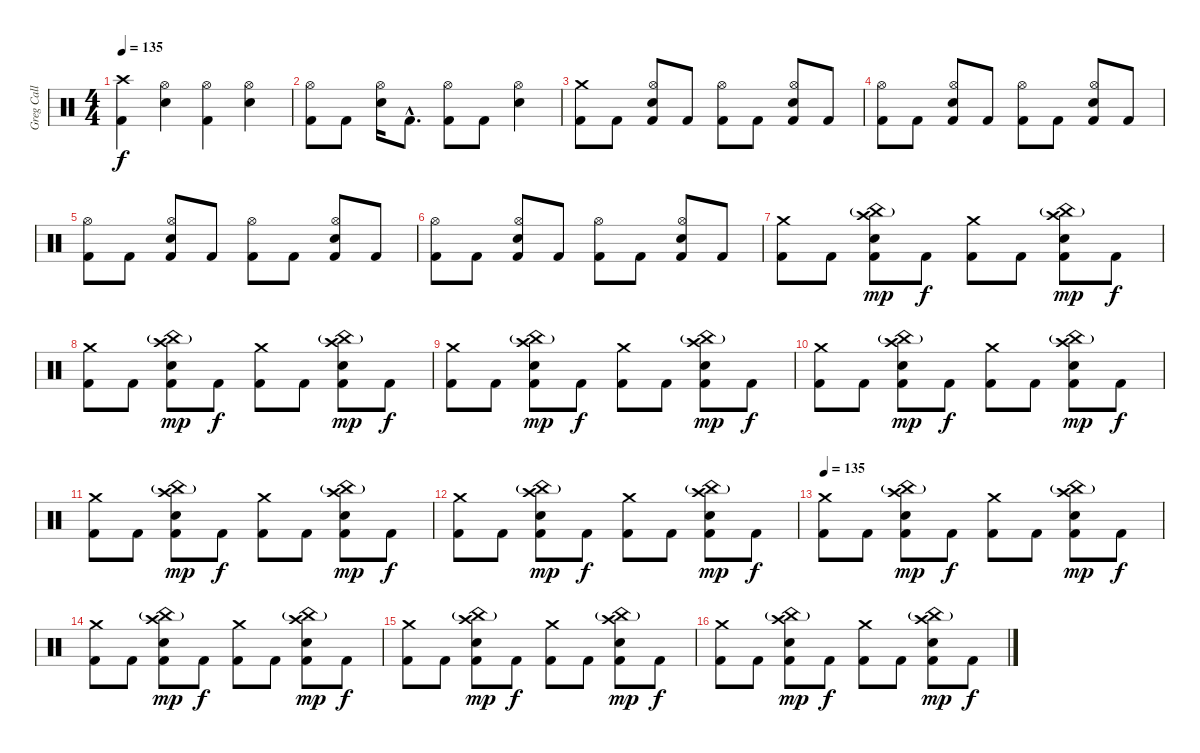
\track ("Greg Call (Drums)" "Greg Call ") {instrument percussion}
\staff {score}
\articulation defaults
\ts (4 4)
\tempo 135
\clef neutral
\ks c
("Crash high (hit)" "Kick (hit) 2").4{dy f} ("Hi-Hat (open)" "Snare (hit) 2").4 ("Hi-Hat (open)" "Kick (hit) 2").4 ("Hi-Hat (open)" "Snare (hit) 2").4 |
("Hi-Hat (open)" "Kick (hit) 2").8 "Kick (hit) 2".8 ("Hi-Hat (open)" "Snare (hit) 2").16 "Kick (hit) 2"{hac}.8{d} ("Hi-Hat (open)" "Kick (hit) 2").8 "Kick (hit) 2".8 ("Hi-Hat (open)" "Snare (hit) 2").4 |
("Crash medium (hit)" "Kick (hit) 2").8 "Kick (hit) 2".8 ("Hi-Hat (open)" "Snare (hit) 2" "Kick (hit) 2").8 "Kick (hit) 2".8 ("Hi-Hat (open)" "Kick (hit) 2").8 "Kick (hit) 2".8 ("Hi-Hat (open)" "Snare (hit) 2" "Kick (hit) 2").8 "Kick (hit) 2".8 |
("Hi-Hat (open)" "Kick (hit) 2").8 "Kick (hit) 2".8 ("Hi-Hat (open)" "Snare (hit) 2" "Kick (hit) 2").8 "Kick (hit) 2".8 ("Hi-Hat (open)" "Kick (hit) 2").8 "Kick (hit) 2".8 ("Hi-Hat (open)" "Snare (hit) 2" "Kick (hit) 2").8 "Kick (hit) 2".8 |
("Hi-Hat (open)" "Kick (hit) 2").8 "Kick (hit) 2".8 ("Hi-Hat (open)" "Snare (hit) 2" "Kick (hit) 2").8 "Kick (hit) 2".8 ("Hi-Hat (open)" "Kick (hit) 2").8 "Kick (hit) 2".8 ("Hi-Hat (open)" "Snare (hit) 2" "Kick (hit) 2").8 "Kick (hit) 2".8 |
("Hi-Hat (open)" "Kick (hit) 2").8 "Kick (hit) 2".8 ("Hi-Hat (open)" "Snare (hit) 2" "Kick (hit) 2").8 "Kick (hit) 2".8 ("Hi-Hat (open)" "Kick (hit) 2").8 "Kick (hit) 2".8 ("Hi-Hat (open)" "Snare (hit) 2" "Kick (hit) 2").8 "Kick (hit) 2".8 |
("Crash medium (hit)" "Kick (hit) 2").8 "Kick (hit) 2".8 ("China (hit)"{g} "Crash high (hit)" "Snare (hit) 2" "Kick (hit) 2").8{dy mp} "Kick (hit) 2".8{dy f} ("Crash medium (hit)" "Kick (hit) 2").8 "Kick (hit) 2".8 ("China (hit)"{g} "Crash high (hit)" "Snare (hit) 2" "Kick (hit) 2").8{dy mp} "Kick (hit) 2".8{dy f} |
("Crash medium (hit)" "Kick (hit) 2").8 "Kick (hit) 2".8 ("China (hit)"{g} "Crash high (hit)" "Snare (hit) 2" "Kick (hit) 2").8{dy mp} "Kick (hit) 2".8{dy f} ("Crash medium (hit)" "Kick (hit) 2").8 "Kick (hit) 2".8 ("China (hit)"{g} "Crash high (hit)" "Snare (hit) 2" "Kick (hit) 2").8{dy mp} "Kick (hit) 2".8{dy f} |
("Crash medium (hit)" "Kick (hit) 2").8 "Kick (hit) 2".8 ("China (hit)"{g} "Crash high (hit)" "Snare (hit) 2" "Kick (hit) 2").8{dy mp} "Kick (hit) 2".8{dy f} ("Crash medium (hit)" "Kick (hit) 2").8 "Kick (hit) 2".8 ("China (hit)"{g} "Crash high (hit)" "Snare (hit) 2" "Kick (hit) 2").8{dy mp} "Kick (hit) 2".8{dy f} |
("Crash medium (hit)" "Kick (hit) 2").8 "Kick (hit) 2".8 ("China (hit)"{g} "Crash high (hit)" "Snare (hit) 2" "Kick (hit) 2").8{dy mp} "Kick (hit) 2".8{dy f} ("Crash medium (hit)" "Kick (hit) 2").8 "Kick (hit) 2".8 ("China (hit)"{g} "Crash high (hit)" "Snare (hit) 2" "Kick (hit) 2").8{dy mp} "Kick (hit) 2".8{dy f} |
("Crash medium (hit)" "Kick (hit) 2").8 "Kick (hit) 2".8 ("China (hit)"{g} "Crash high (hit)" "Snare (hit) 2" "Kick (hit) 2").8{dy mp} "Kick (hit) 2".8{dy f} ("Crash medium (hit)" "Kick (hit) 2").8 "Kick (hit) 2".8 ("China (hit)"{g} "Crash high (hit)" "Snare (hit) 2" "Kick (hit) 2").8{dy mp} "Kick (hit) 2".8{dy f} |
("Crash medium (hit)" "Kick (hit) 2").8 "Kick (hit) 2".8 ("China (hit)"{g} "Crash high (hit)" "Snare (hit) 2" "Kick (hit) 2").8{dy mp} "Kick (hit) 2".8{dy f} ("Crash medium (hit)" "Kick (hit) 2").8 "Kick (hit) 2".8 ("China (hit)"{g} "Crash high (hit)" "Snare (hit) 2" "Kick (hit) 2").8{dy mp} "Kick (hit) 2".8{dy f} |
\tempo 135
("Crash medium (hit)" "Kick (hit) 2").8{volume 12} "Kick (hit) 2".8 ("China (hit)"{g} "Crash high (hit)" "Snare (hit) 2" "Kick (hit) 2").8{dy mp} "Kick (hit) 2".8{dy f} ("Crash medium (hit)" "Kick (hit) 2").8 "Kick (hit) 2".8 ("China (hit)"{g} "Crash high (hit)" "Snare (hit) 2" "Kick (hit) 2").8{dy mp} "Kick (hit) 2".8{dy f} |
("Crash medium (hit)" "Kick (hit) 2").8 "Kick (hit) 2".8 ("China (hit)"{g} "Crash high (hit)" "Snare (hit) 2" "Kick (hit) 2").8{dy mp} "Kick (hit) 2".8{dy f} ("Crash medium (hit)" "Kick (hit) 2").8 "Kick (hit) 2".8 ("China (hit)"{g} "Crash high (hit)" "Snare (hit) 2" "Kick (hit) 2").8{dy mp} "Kick (hit) 2".8{dy f} |
("Crash medium (hit)" "Kick (hit) 2").8{volume 10} "Kick (hit) 2".8 ("China (hit)"{g} "Crash high (hit)" "Snare (hit) 2" "Kick (hit) 2").8{dy mp} "Kick (hit) 2".8{dy f} ("Crash medium (hit)" "Kick (hit) 2").8 "Kick (hit) 2".8 ("China (hit)"{g} "Crash high (hit)" "Snare (hit) 2" "Kick (hit) 2").8{dy mp} "Kick (hit) 2".8{dy f} |
("Crash medium (hit)" "Kick (hit) 2").8 "Kick (hit) 2".8 ("China (hit)"{g} "Crash high (hit)" "Snare (hit) 2" "Kick (hit) 2").8{dy mp} "Kick (hit) 2".8{dy f} ("Crash medium (hit)" "Kick (hit) 2").8 "Kick (hit) 2".8 ("China (hit)"{g} "Crash high (hit)" "Snare (hit) 2" "Kick (hit) 2").8{dy mp} "Kick (hit) 2".8{dy f}
